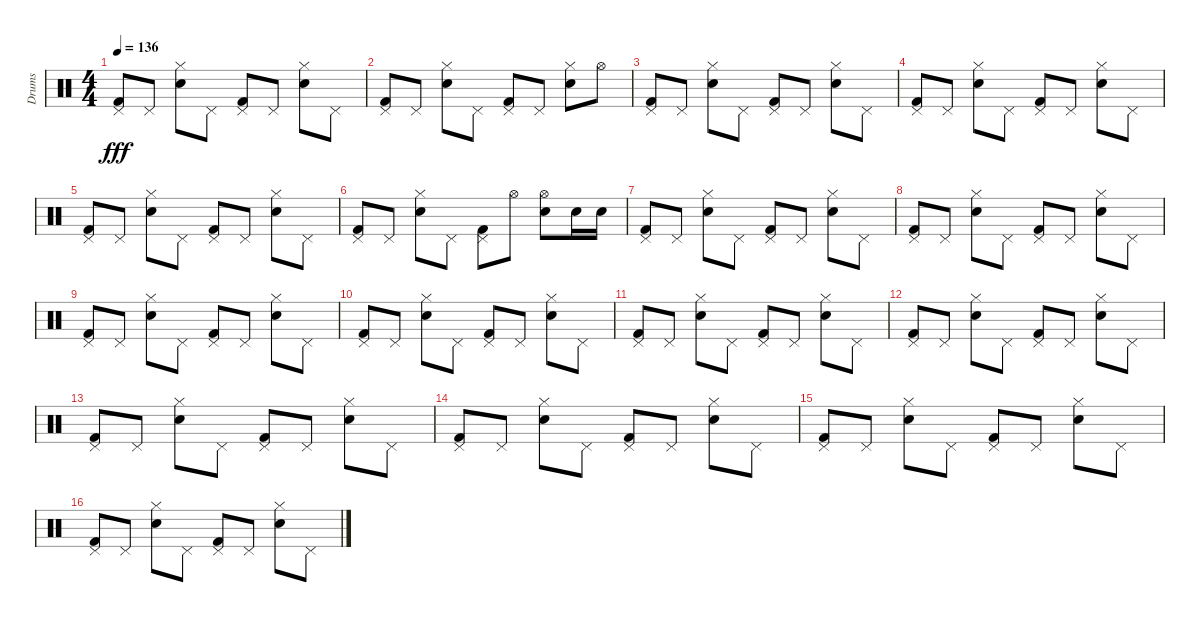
\track ("Drums" "Drums") {instrument percussion}
\staff {score}
\articulation defaults
\ts (4 4)
\tempo 136
\clef neutral
\ks c
("Pedal Hi-Hat (hit)" "Kick (hit) 2").8{dy fff} "Pedal Hi-Hat (hit)".8 ("Hi-Hat (closed)" "Snare (hit) 2").8 "Pedal Hi-Hat (hit)".8 ("Pedal Hi-Hat (hit)" "Kick (hit) 2").8 "Pedal Hi-Hat (hit)".8 ("Hi-Hat (closed)" "Snare (hit) 2").8 "Pedal Hi-Hat (hit)".8 |
("Pedal Hi-Hat (hit)" "Kick (hit) 2").8 "Pedal Hi-Hat (hit)".8 ("Hi-Hat (closed)" "Snare (hit) 2").8 "Pedal Hi-Hat (hit)".8 ("Pedal Hi-Hat (hit)" "Kick (hit) 2").8 "Pedal Hi-Hat (hit)".8 ("Hi-Hat (closed)" "Snare (hit) 2").8 "Hi-Hat (open)".8 |
("Pedal Hi-Hat (hit)" "Kick (hit) 2").8 "Pedal Hi-Hat (hit)".8 ("Hi-Hat (closed)" "Snare (hit) 2").8 "Pedal Hi-Hat (hit)".8 ("Pedal Hi-Hat (hit)" "Kick (hit) 2").8 "Pedal Hi-Hat (hit)".8 ("Hi-Hat (closed)" "Snare (hit) 2").8 "Pedal Hi-Hat (hit)".8 |
("Pedal Hi-Hat (hit)" "Kick (hit) 2").8 "Pedal Hi-Hat (hit)".8 ("Hi-Hat (closed)" "Snare (hit) 2").8 "Pedal Hi-Hat (hit)".8 ("Pedal Hi-Hat (hit)" "Kick (hit) 2").8 "Pedal Hi-Hat (hit)".8 ("Hi-Hat (closed)" "Snare (hit) 2").8 "Pedal Hi-Hat (hit)".8 |
("Pedal Hi-Hat (hit)" "Kick (hit) 2").8 "Pedal Hi-Hat (hit)".8 ("Hi-Hat (closed)" "Snare (hit) 2").8 "Pedal Hi-Hat (hit)".8 ("Pedal Hi-Hat (hit)" "Kick (hit) 2").8 "Pedal Hi-Hat (hit)".8 ("Hi-Hat (closed)" "Snare (hit) 2").8 "Pedal Hi-Hat (hit)".8 |
("Pedal Hi-Hat (hit)" "Kick (hit) 2").8 "Pedal Hi-Hat (hit)".8 ("Hi-Hat (closed)" "Snare (hit) 2").8 "Pedal Hi-Hat (hit)".8 ("Pedal Hi-Hat (hit)" "Kick (hit) 2").8 "Hi-Hat (open)".8 ("Hi-Hat (open)" "Snare (hit) 2").8 "Snare (hit) 2".16 "Snare (hit) 2".16 |
("Pedal Hi-Hat (hit)" "Kick (hit) 2").8 "Pedal Hi-Hat (hit)".8 ("Hi-Hat (closed)" "Snare (hit) 2").8 "Pedal Hi-Hat (hit)".8 ("Pedal Hi-Hat (hit)" "Kick (hit) 2").8 "Pedal Hi-Hat (hit)".8 ("Hi-Hat (closed)" "Snare (hit) 2").8 "Pedal Hi-Hat (hit)".8 |
("Pedal Hi-Hat (hit)" "Kick (hit) 2").8 "Pedal Hi-Hat (hit)".8 ("Hi-Hat (closed)" "Snare (hit) 2").8 "Pedal Hi-Hat (hit)".8 ("Pedal Hi-Hat (hit)" "Kick (hit) 2").8 "Pedal Hi-Hat (hit)".8 ("Hi-Hat (closed)" "Snare (hit) 2").8 "Pedal Hi-Hat (hit)".8 |
("Pedal Hi-Hat (hit)" "Kick (hit) 2").8 "Pedal Hi-Hat (hit)".8 ("Hi-Hat (closed)" "Snare (hit) 2").8 "Pedal Hi-Hat (hit)".8 ("Pedal Hi-Hat (hit)" "Kick (hit) 2").8 "Pedal Hi-Hat (hit)".8 ("Hi-Hat (closed)" "Snare (hit) 2").8 "Pedal Hi-Hat (hit)".8 |
("Pedal Hi-Hat (hit)" "Kick (hit) 2").8 "Pedal Hi-Hat (hit)".8 ("Hi-Hat (closed)" "Snare (hit) 2").8 "Pedal Hi-Hat (hit)".8 ("Pedal Hi-Hat (hit)" "Kick (hit) 2").8 "Pedal Hi-Hat (hit)".8 ("Hi-Hat (closed)" "Snare (hit) 2").8 "Pedal Hi-Hat (hit)".8 |
("Pedal Hi-Hat (hit)" "Kick (hit) 2").8 "Pedal Hi-Hat (hit)".8 ("Hi-Hat (closed)" "Snare (hit) 2").8 "Pedal Hi-Hat (hit)".8 ("Pedal Hi-Hat (hit)" "Kick (hit) 2").8 "Pedal Hi-Hat (hit)".8 ("Hi-Hat (closed)" "Snare (hit) 2").8 "Pedal Hi-Hat (hit)".8 |
("Pedal Hi-Hat (hit)" "Kick (hit) 2").8 "Pedal Hi-Hat (hit)".8 ("Hi-Hat (closed)" "Snare (hit) 2").8 "Pedal Hi-Hat (hit)".8 ("Pedal Hi-Hat (hit)" "Kick (hit) 2").8 "Pedal Hi-Hat (hit)".8 ("Hi-Hat (closed)" "Snare (hit) 2").8 "Pedal Hi-Hat (hit)".8 |
("Pedal Hi-Hat (hit)" "Kick (hit) 2").8 "Pedal Hi-Hat (hit)".8 ("Hi-Hat (closed)" "Snare (hit) 2").8 "Pedal Hi-Hat (hit)".8 ("Pedal Hi-Hat (hit)" "Kick (hit) 2").8 "Pedal Hi-Hat (hit)".8 ("Hi-Hat (closed)" "Snare (hit) 2").8 "Pedal Hi-Hat (hit)".8 |
("Pedal Hi-Hat (hit)" "Kick (hit) 2").8 "Pedal Hi-Hat (hit)".8 ("Hi-Hat (closed)" "Snare (hit) 2").8 "Pedal Hi-Hat (hit)".8 ("Pedal Hi-Hat (hit)" "Kick (hit) 2").8 "Pedal Hi-Hat (hit)".8 ("Hi-Hat (closed)" "Snare (hit) 2").8 "Pedal Hi-Hat (hit)".8 |
("Pedal Hi-Hat (hit)" "Kick (hit) 2").8 "Pedal Hi-Hat (hit)".8 ("Hi-Hat (closed)" "Snare (hit) 2").8 "Pedal Hi-Hat (hit)".8 ("Pedal Hi-Hat (hit)" "Kick (hit) 2").8 "Pedal Hi-Hat (hit)".8 ("Hi-Hat (closed)" "Snare (hit) 2").8 "Pedal Hi-Hat (hit)".8 |
("Pedal Hi-Hat (hit)" "Kick (hit) 2").8 "Pedal Hi-Hat (hit)".8 ("Hi-Hat (closed)" "Snare (hit) 2").8 "Pedal Hi-Hat (hit)".8 ("Pedal Hi-Hat (hit)" "Kick (hit) 2").8 "Pedal Hi-Hat (hit)".8 ("Hi-Hat (closed)" "Snare (hit) 2").8 "Pedal Hi-Hat (hit)".8
